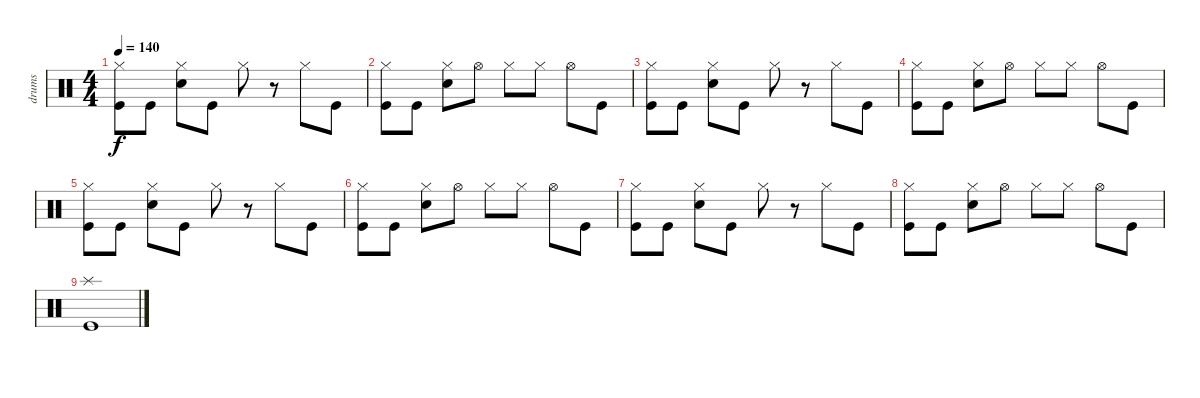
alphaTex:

\track ("drums" "drums") {instrument percussion}
\staff {score}
\articulation defaults
\ts (4 4)
\tempo 140
\clef neutral
\ks c
("Hi-Hat (closed)" "Kick (hit)").8{dy f} "Kick (hit)".8 ("Hi-Hat (closed)" "Electric Snare (hit)").8 "Kick (hit)".8 "Hi-Hat (closed)".8 r.8 "Hi-Hat (closed)".8 "Kick (hit)".8 |
("Hi-Hat (closed)" "Kick (hit)").8 "Kick (hit)".8 ("Hi-Hat (closed)" "Electric Snare (hit)").8 "Hi-Hat (open)".8 "Hi-Hat (closed)".8 "Hi-Hat (closed)".8 "Hi-Hat (open)".8 "Kick (hit)".8 |
("Hi-Hat (closed)" "Kick (hit)").8 "Kick (hit)".8 ("Hi-Hat (closed)" "Electric Snare (hit)").8 "Kick (hit)".8 "Hi-Hat (closed)".8 r.8 "Hi-Hat (closed)".8 "Kick (hit)".8 |
("Hi-Hat (closed)" "Kick (hit)").8 "Kick (hit)".8 ("Hi-Hat (closed)" "Electric Snare (hit)").8 "Hi-Hat (open)".8 "Hi-Hat (closed)".8 "Hi-Hat (closed)".8 "Hi-Hat (open)".8 "Kick (hit)".8 |
("Hi-Hat (closed)" "Kick (hit)").8 "Kick (hit)".8 ("Hi-Hat (closed)" "Electric Snare (hit)").8 "Kick (hit)".8 "Hi-Hat (closed)".8 r.8 "Hi-Hat (closed)".8 "Kick (hit)".8 |
("Hi-Hat (closed)" "Kick (hit)").8 "Kick (hit)".8 ("Hi-Hat (closed)" "Electric Snare (hit)").8 "Hi-Hat (open)".8 "Hi-Hat (closed)".8 "Hi-Hat (closed)".8 "Hi-Hat (open)".8 "Kick (hit)".8 |
("Hi-Hat (closed)" "Kick (hit)").8 "Kick (hit)".8 ("Hi-Hat (closed)" "Electric Snare (hit)").8 "Kick (hit)".8 "Hi-Hat (closed)".8 r.8 "Hi-Hat (closed)".8 "Kick (hit)".8 |
("Hi-Hat (closed)" "Kick (hit)").8 "Kick (hit)".8 ("Hi-Hat (closed)" "Electric Snare (hit)").8 "Hi-Hat (open)".8 "Hi-Hat (closed)".8 "Hi-Hat (closed)".8 "Hi-Hat (open)".8 "Kick (hit)".8 |
("Splash (hit)" "Kick (hit)").1
